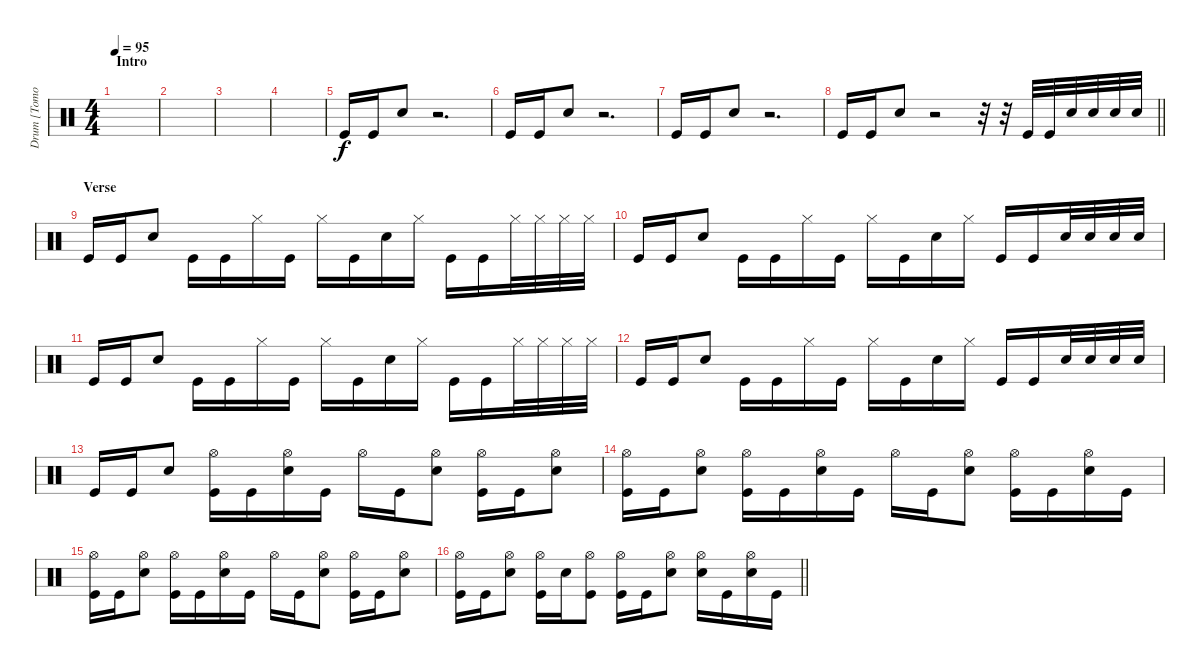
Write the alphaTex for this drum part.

\track ("Drum [Tomoya]" "Drum [Tomo") {instrument percussion}
\staff {score}
\articulation defaults
\ts (4 4)
\section ("" "Intro")
\tempo 95
\clef neutral
\ks c
|
|
|
|
"Kick (hit)".16 "Kick (hit)".16 "Snare (hit) 2".8 r.2{d} |
"Kick (hit)".16 "Kick (hit)".16 "Snare (hit) 2".8 r.2{d} |
"Kick (hit)".16 "Kick (hit)".16 "Snare (hit) 2".8 r.2{d} |
\barLineRight lightlight "Kick (hit)".16 "Kick (hit)".16 "Snare (hit) 2".8
r.2 r.32 r.32 "Kick (hit)".32 "Kick (hit)".32 "Snare (hit) 2".32 "Snare (hit) 2".32 "Snare (hit) 2".32 "Snare (hit) 2".32 |
\section ("" "Verse")
"Kick (hit)".16 "Kick (hit)".16 "Snare (hit) 2".8 "Kick (hit)".16 "Kick (hit)".16 "Hi-Hat (closed)".16 "Kick (hit)".16 "Hi-Hat (closed)".16 "Kick (hit)".16 "Snare (hit) 2".16 "Hi-Hat (closed)".16 "Kick (hit)".16 "Kick (hit)".16 "Hi-Hat (closed)".32 "Hi-Hat (closed)".32 "Hi-Hat (closed)".32 "Hi-Hat (closed)".32 |
"Kick (hit)".16 "Kick (hit)".16 "Snare (hit) 2".8 "Kick (hit)".16 "Kick (hit)".16 "Hi-Hat (closed)".16 "Kick (hit)".16 "Hi-Hat (closed)".16 "Kick (hit)".16 "Snare (hit) 2".16 "Hi-Hat (closed)".16 "Kick (hit)".16 "Kick (hit)".16 "Snare (hit) 2".32 "Snare (hit) 2".32 "Snare (hit) 2".32 "Snare (hit) 2".32 |
"Kick (hit)".16 "Kick (hit)".16 "Snare (hit) 2".8 "Kick (hit)".16 "Kick (hit)".16 "Hi-Hat (closed)".16 "Kick (hit)".16 "Hi-Hat (closed)".16 "Kick (hit)".16 "Snare (hit) 2".16 "Hi-Hat (closed)".16 "Kick (hit)".16 "Kick (hit)".16 "Hi-Hat (closed)".32 "Hi-Hat (closed)".32 "Hi-Hat (closed)".32 "Hi-Hat (closed)".32 |
"Kick (hit)".16 "Kick (hit)".16 "Snare (hit) 2".8 "Kick (hit)".16 "Kick (hit)".16 "Hi-Hat (closed)".16 "Kick (hit)".16 "Hi-Hat (closed)".16 "Kick (hit)".16 "Snare (hit) 2".16 "Hi-Hat (closed)".16 "Kick (hit)".16 "Kick (hit)".16 "Snare (hit) 2".32 "Snare (hit) 2".32 "Snare (hit) 2".32 "Snare (hit) 2".32 |
"Kick (hit)".16 "Kick (hit)".16 "Snare (hit) 2".8 ("Kick (hit)" "Hi-Hat (open)").16 "Kick (hit)".16 ("Snare (hit) 2" "Hi-Hat (open)").16 "Kick (hit)".16 "Hi-Hat (open)".16 "Kick (hit)".16 ("Snare (hit) 2" "Hi-Hat (open)").8 ("Kick (hit)" "Hi-Hat (open)").16 "Kick (hit)".16 ("Snare (hit) 2" "Hi-Hat (open)").8 |
("Kick (hit)" "Hi-Hat (open)").16 "Kick (hit)".16 ("Snare (hit) 2" "Hi-Hat (open)").8 ("Kick (hit)" "Hi-Hat (open)").16 "Kick (hit)".16 ("Snare (hit) 2" "Hi-Hat (open)").16 "Kick (hit)".16 "Hi-Hat (open)".16 "Kick (hit)".16 ("Snare (hit) 2" "Hi-Hat (open)").8 ("Kick (hit)" "Hi-Hat (open)").16 "Kick (hit)".16 ("Snare (hit) 2" "Hi-Hat (open)").16 "Kick (hit)".16 |
("Kick (hit)" "Hi-Hat (open)").16 "Kick (hit)".16 ("Snare (hit) 2" "Hi-Hat (open)").8 ("Kick (hit)" "Hi-Hat (open)").16 "Kick (hit)".16 ("Snare (hit) 2" "Hi-Hat (open)").16 "Kick (hit)".16 "Hi-Hat (open)".16 "Kick (hit)".16 ("Snare (hit) 2" "Hi-Hat (open)").8 ("Kick (hit)" "Hi-Hat (open)").16 "Kick (hit)".16 ("Snare (hit) 2" "Hi-Hat (open)").8 |
\barLineRight lightlight
("Kick (hit)" "Hi-Hat (open)").16 "Kick (hit)".16 ("Snare (hit) 2" "Hi-Hat (open)").8 ("Hi-Hat (open)" "Kick (hit)").16 "Snare (hit) 2".16 ("Hi-Hat (open)" "Kick (hit)").8 ("Kick (hit)" "Hi-Hat (open)").16 "Kick (hit)".16 ("Snare (hit) 2" "Hi-Hat (open)").8 ("Hi-Hat (open)" "Snare (hit) 2").16 "Kick (hit)".16 ("Hi-Hat (open)" "Snare (hit) 2").16 "Kick (hit)".16
